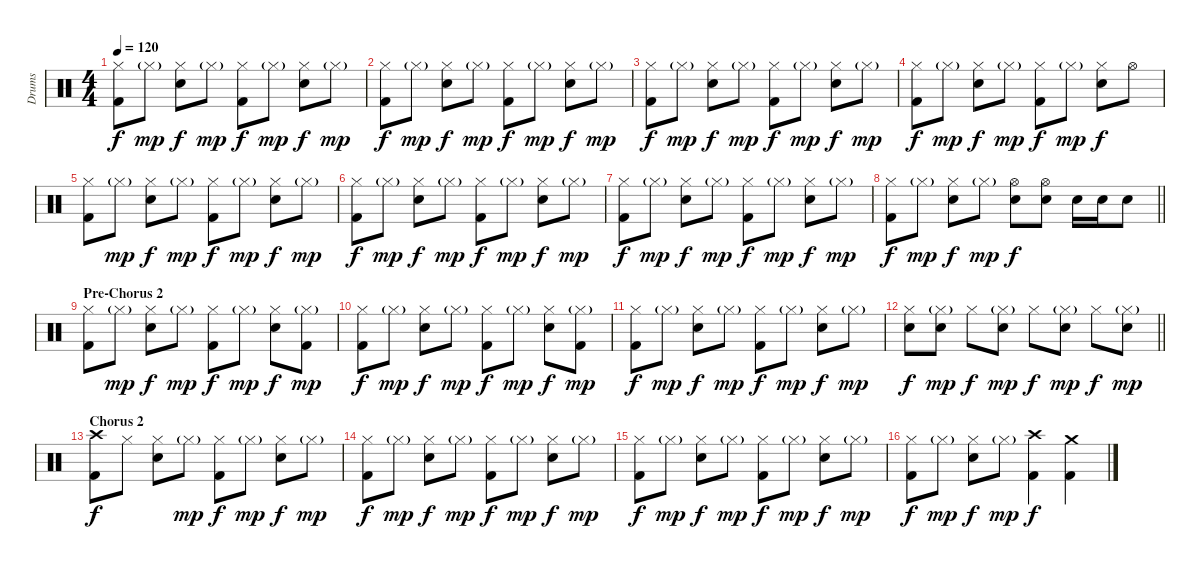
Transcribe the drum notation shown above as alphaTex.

\track ("Drums" "Drums") {instrument percussion}
\staff {score}
\articulation defaults
\ts (4 4)
\tempo 120
\clef neutral
\ks c
("Hi-Hat (closed)" "Kick (hit) 2").8{dy f} "Hi-Hat (closed)"{g}.8{dy mp} ("Hi-Hat (closed)" "Electric Snare (hit)").8{dy f} "Hi-Hat (closed)"{g}.8{dy mp} ("Hi-Hat (closed)" "Kick (hit) 2").8{dy f} "Hi-Hat (closed)"{g}.8{dy mp} ("Hi-Hat (closed)" "Electric Snare (hit)").8{dy f} "Hi-Hat (closed)"{g}.8{dy mp} |
("Hi-Hat (closed)" "Kick (hit) 2").8{dy f} "Hi-Hat (closed)"{g}.8{dy mp} ("Hi-Hat (closed)" "Electric Snare (hit)").8{dy f} "Hi-Hat (closed)"{g}.8{dy mp} ("Hi-Hat (closed)" "Kick (hit) 2").8{dy f} "Hi-Hat (closed)"{g}.8{dy mp} ("Hi-Hat (closed)" "Electric Snare (hit)").8{dy f} "Hi-Hat (closed)"{g}.8{dy mp} |
("Hi-Hat (closed)" "Kick (hit) 2").8{dy f} "Hi-Hat (closed)"{g}.8{dy mp} ("Hi-Hat (closed)" "Electric Snare (hit)").8{dy f} "Hi-Hat (closed)"{g}.8{dy mp} ("Hi-Hat (closed)" "Kick (hit) 2").8{dy f} "Hi-Hat (closed)"{g}.8{dy mp} ("Hi-Hat (closed)" "Electric Snare (hit)").8{dy f} "Hi-Hat (closed)"{g}.8{dy mp} |
("Hi-Hat (closed)" "Kick (hit) 2").8{dy f} "Hi-Hat (closed)"{g}.8{dy mp} ("Hi-Hat (closed)" "Electric Snare (hit)").8{dy f} "Hi-Hat (closed)"{g}.8{dy mp} ("Hi-Hat (closed)" "Kick (hit) 2").8{dy f} "Hi-Hat (closed)"{g}.8{dy mp} ("Hi-Hat (closed)" "Electric Snare (hit)").8{dy f} "Hi-Hat (open)".8 |
("Hi-Hat (closed)" "Kick (hit) 2").8 "Hi-Hat (closed)"{g}.8{dy mp} ("Hi-Hat (closed)" "Electric Snare (hit)").8{dy f} "Hi-Hat (closed)"{g}.8{dy mp} ("Hi-Hat (closed)" "Kick (hit) 2").8{dy f} "Hi-Hat (closed)"{g}.8{dy mp} ("Hi-Hat (closed)" "Electric Snare (hit)").8{dy f} "Hi-Hat (closed)"{g}.8{dy mp} |
("Hi-Hat (closed)" "Kick (hit) 2").8{dy f} "Hi-Hat (closed)"{g}.8{dy mp} ("Hi-Hat (closed)" "Electric Snare (hit)").8{dy f} "Hi-Hat (closed)"{g}.8{dy mp} ("Hi-Hat (closed)" "Kick (hit) 2").8{dy f} "Hi-Hat (closed)"{g}.8{dy mp} ("Hi-Hat (closed)" "Electric Snare (hit)").8{dy f} "Hi-Hat (closed)"{g}.8{dy mp} |
("Hi-Hat (closed)" "Kick (hit) 2").8{dy f} "Hi-Hat (closed)"{g}.8{dy mp} ("Hi-Hat (closed)" "Electric Snare (hit)").8{dy f} "Hi-Hat (closed)"{g}.8{dy mp} ("Hi-Hat (closed)" "Kick (hit) 2").8{dy f} "Hi-Hat (closed)"{g}.8{dy mp} ("Hi-Hat (closed)" "Electric Snare (hit)").8{dy f} "Hi-Hat (closed)"{g}.8{dy mp} |
\barLineRight lightlight
("Hi-Hat (closed)" "Kick (hit) 2").8{dy f} "Hi-Hat (closed)"{g}.8{dy mp} ("Hi-Hat (closed)" "Electric Snare (hit)").8{dy f} "Hi-Hat (closed)"{g}.8{dy mp} ("Hi-Hat (open)" "Electric Snare (hit)").8{dy f} ("Hi-Hat (open)" "Electric Snare (hit)").8 "Electric Snare (hit)".16 "Electric Snare (hit)".16 "Electric Snare (hit)".8 |
\section ("" "Pre-Chorus 2")
("Hi-Hat (closed)" "Kick (hit) 2").8 "Hi-Hat (closed)"{g}.8{dy mp} ("Hi-Hat (closed)" "Electric Snare (hit)").8{dy f} "Hi-Hat (closed)"{g}.8{dy mp} ("Hi-Hat (closed)" "Kick (hit) 2").8{dy f} "Hi-Hat (closed)"{g}.8{dy mp} ("Hi-Hat (closed)" "Electric Snare (hit)").8{dy f} ("Hi-Hat (closed)"{g} "Kick (hit) 2").8{dy mp} |
("Hi-Hat (closed)" "Kick (hit) 2").8{dy f} "Hi-Hat (closed)"{g}.8{dy mp} ("Hi-Hat (closed)" "Electric Snare (hit)").8{dy f} "Hi-Hat (closed)"{g}.8{dy mp} ("Hi-Hat (closed)" "Kick (hit) 2").8{dy f} "Hi-Hat (closed)"{g}.8{dy mp} ("Hi-Hat (closed)" "Electric Snare (hit)").8{dy f} ("Hi-Hat (closed)"{g} "Kick (hit) 2").8{dy mp} |
("Hi-Hat (closed)" "Kick (hit) 2").8{dy f} "Hi-Hat (closed)"{g}.8{dy mp} ("Hi-Hat (closed)" "Electric Snare (hit)").8{dy f} "Hi-Hat (closed)"{g}.8{dy mp} ("Hi-Hat (closed)" "Kick (hit) 2").8{dy f} "Hi-Hat (closed)"{g}.8{dy mp} ("Hi-Hat (closed)" "Electric Snare (hit)").8{dy f} "Hi-Hat (closed)"{g}.8{dy mp} |
\barLineRight lightlight
("Hi-Hat (closed)" "Electric Snare (hit)").8{dy f} ("Hi-Hat (closed)"{g} "Electric Snare (hit)").8{dy mp} "Hi-Hat (closed)".8{dy f} ("Hi-Hat (closed)"{g} "Electric Snare (hit)").8{dy mp} "Hi-Hat (closed)".8{dy f} ("Hi-Hat (closed)"{g} "Electric Snare (hit)").8{dy mp} "Hi-Hat (closed)".8{dy f} ("Hi-Hat (closed)"{g} "Electric Snare (hit)").8{dy mp} |
\section ("" "Chorus 2")
("Crash high (hit)" "Kick (hit) 2").8{dy f} "Hi-Hat (closed)".8 ("Hi-Hat (closed)" "Electric Snare (hit)").8 "Hi-Hat (closed)"{g}.8{dy mp} ("Hi-Hat (closed)" "Kick (hit) 2").8{dy f} "Hi-Hat (closed)"{g}.8{dy mp} ("Hi-Hat (closed)" "Electric Snare (hit)").8{dy f} "Hi-Hat (closed)"{g}.8{dy mp} |
("Hi-Hat (closed)" "Kick (hit) 2").8{dy f} "Hi-Hat (closed)"{g}.8{dy mp} ("Hi-Hat (closed)" "Electric Snare (hit)").8{dy f} "Hi-Hat (closed)"{g}.8{dy mp} ("Hi-Hat (closed)" "Kick (hit) 2").8{dy f} "Hi-Hat (closed)"{g}.8{dy mp} ("Hi-Hat (closed)" "Electric Snare (hit)").8{dy f} "Hi-Hat (closed)"{g}.8{dy mp} |
("Hi-Hat (closed)" "Kick (hit) 2").8{dy f} "Hi-Hat (closed)"{g}.8{dy mp} ("Hi-Hat (closed)" "Electric Snare (hit)").8{dy f} "Hi-Hat (closed)"{g}.8{dy mp} ("Hi-Hat (closed)" "Kick (hit) 2").8{dy f} "Hi-Hat (closed)"{g}.8{dy mp} ("Hi-Hat (closed)" "Electric Snare (hit)").8{dy f} "Hi-Hat (closed)"{g}.8{dy mp} |
("Hi-Hat (closed)" "Kick (hit) 2").8{dy f} "Hi-Hat (closed)"{g}.8{dy mp} ("Hi-Hat (closed)" "Electric Snare (hit)").8{dy f} "Hi-Hat (closed)"{g}.8{dy mp} ("Crash high (hit)" "Kick (hit) 2").4{dy f} ("Crash medium (hit)" "Kick (hit) 2").4
